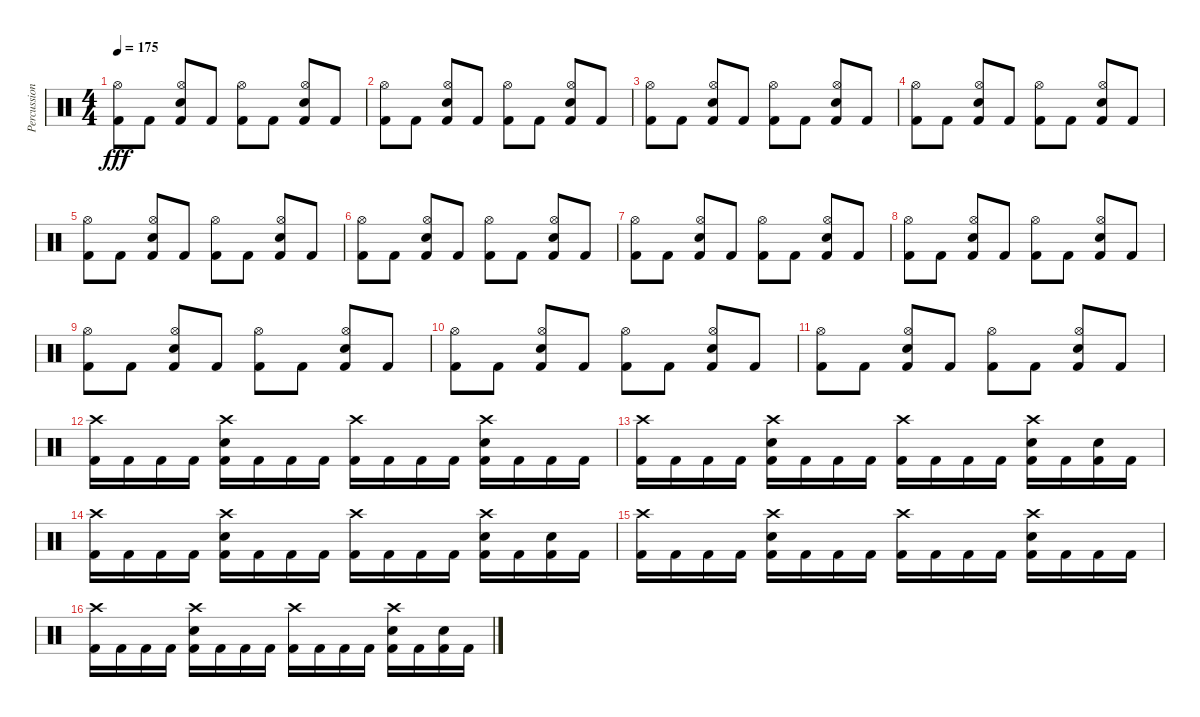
\track ("Percussion" "Percussion") {instrument percussion}
\staff {score}
\articulation defaults
\ts (4 4)
\tempo 175
\clef neutral
\ks c
("Kick (hit) 2" "Hi-Hat (open)").8{dy fff} "Kick (hit) 2".8 ("Kick (hit) 2" "Electric Snare (hit)" "Hi-Hat (open)").8 "Kick (hit) 2".8 ("Kick (hit) 2" "Hi-Hat (open)").8 "Kick (hit) 2".8 ("Kick (hit) 2" "Electric Snare (hit)" "Hi-Hat (open)").8 "Kick (hit) 2".8 |
("Kick (hit) 2" "Hi-Hat (open)").8 "Kick (hit) 2".8 ("Kick (hit) 2" "Electric Snare (hit)" "Hi-Hat (open)").8 "Kick (hit) 2".8 ("Kick (hit) 2" "Hi-Hat (open)").8 "Kick (hit) 2".8 ("Kick (hit) 2" "Electric Snare (hit)" "Hi-Hat (open)").8 "Kick (hit) 2".8 |
("Kick (hit) 2" "Hi-Hat (open)").8 "Kick (hit) 2".8 ("Kick (hit) 2" "Electric Snare (hit)" "Hi-Hat (open)").8 "Kick (hit) 2".8 ("Kick (hit) 2" "Hi-Hat (open)").8 "Kick (hit) 2".8 ("Kick (hit) 2" "Electric Snare (hit)" "Hi-Hat (open)").8 "Kick (hit) 2".8 |
("Kick (hit) 2" "Hi-Hat (open)").8 "Kick (hit) 2".8 ("Kick (hit) 2" "Electric Snare (hit)" "Hi-Hat (open)").8 "Kick (hit) 2".8 ("Kick (hit) 2" "Hi-Hat (open)").8 "Kick (hit) 2".8 ("Kick (hit) 2" "Electric Snare (hit)" "Hi-Hat (open)").8 "Kick (hit) 2".8 |
("Kick (hit) 2" "Hi-Hat (open)").8 "Kick (hit) 2".8 ("Kick (hit) 2" "Electric Snare (hit)" "Hi-Hat (open)").8 "Kick (hit) 2".8 ("Kick (hit) 2" "Hi-Hat (open)").8 "Kick (hit) 2".8 ("Kick (hit) 2" "Electric Snare (hit)" "Hi-Hat (open)").8 "Kick (hit) 2".8 |
("Kick (hit) 2" "Hi-Hat (open)").8 "Kick (hit) 2".8 ("Kick (hit) 2" "Electric Snare (hit)" "Hi-Hat (open)").8 "Kick (hit) 2".8 ("Kick (hit) 2" "Hi-Hat (open)").8 "Kick (hit) 2".8 ("Kick (hit) 2" "Electric Snare (hit)" "Hi-Hat (open)").8 "Kick (hit) 2".8 |
("Kick (hit) 2" "Hi-Hat (open)").8 "Kick (hit) 2".8 ("Kick (hit) 2" "Electric Snare (hit)" "Hi-Hat (open)").8 "Kick (hit) 2".8 ("Kick (hit) 2" "Hi-Hat (open)").8 "Kick (hit) 2".8 ("Kick (hit) 2" "Electric Snare (hit)" "Hi-Hat (open)").8 "Kick (hit) 2".8 |
("Kick (hit) 2" "Hi-Hat (open)").8 "Kick (hit) 2".8 ("Kick (hit) 2" "Electric Snare (hit)" "Hi-Hat (open)").8 "Kick (hit) 2".8 ("Kick (hit) 2" "Hi-Hat (open)").8 "Kick (hit) 2".8 ("Kick (hit) 2" "Electric Snare (hit)" "Hi-Hat (open)").8 "Kick (hit) 2".8 |
("Kick (hit) 2" "Hi-Hat (open)").8 "Kick (hit) 2".8 ("Kick (hit) 2" "Electric Snare (hit)" "Hi-Hat (open)").8 "Kick (hit) 2".8 ("Kick (hit) 2" "Hi-Hat (open)").8 "Kick (hit) 2".8 ("Kick (hit) 2" "Electric Snare (hit)" "Hi-Hat (open)").8 "Kick (hit) 2".8 |
("Kick (hit) 2" "Hi-Hat (open)").8 "Kick (hit) 2".8 ("Kick (hit) 2" "Electric Snare (hit)" "Hi-Hat (open)").8 "Kick (hit) 2".8 ("Kick (hit) 2" "Hi-Hat (open)").8 "Kick (hit) 2".8 ("Kick (hit) 2" "Electric Snare (hit)" "Hi-Hat (open)").8 "Kick (hit) 2".8 |
("Kick (hit) 2" "Hi-Hat (open)").8 "Kick (hit) 2".8 ("Kick (hit) 2" "Electric Snare (hit)" "Hi-Hat (open)").8 "Kick (hit) 2".8 ("Kick (hit) 2" "Hi-Hat (open)").8 "Kick (hit) 2".8 ("Kick (hit) 2" "Electric Snare (hit)" "Hi-Hat (open)").8 "Kick (hit) 2".8 |
("Kick (hit) 2" "Crash high (hit)").16 "Kick (hit) 2".16 "Kick (hit) 2".16 "Kick (hit) 2".16 ("Kick (hit) 2" "Electric Snare (hit)" "Crash high (hit)").16 "Kick (hit) 2".16 "Kick (hit) 2".16 "Kick (hit) 2".16 ("Kick (hit) 2" "Crash high (hit)").16 "Kick (hit) 2".16 "Kick (hit) 2".16 "Kick (hit) 2".16 ("Kick (hit) 2" "Electric Snare (hit)" "Crash high (hit)").16 "Kick (hit) 2".16 "Kick (hit) 2".16 "Kick (hit) 2".16 |
("Kick (hit) 2" "Crash high (hit)").16 "Kick (hit) 2".16 "Kick (hit) 2".16 "Kick (hit) 2".16 ("Kick (hit) 2" "Electric Snare (hit)" "Crash high (hit)").16 "Kick (hit) 2".16 "Kick (hit) 2".16 "Kick (hit) 2".16 ("Kick (hit) 2" "Crash high (hit)").16 "Kick (hit) 2".16 "Kick (hit) 2".16 "Kick (hit) 2".16 ("Kick (hit) 2" "Electric Snare (hit)" "Crash high (hit)").16 "Kick (hit) 2".16 ("Kick (hit) 2" "Electric Snare (hit)").16 "Kick (hit) 2".16 |
("Kick (hit) 2" "Crash high (hit)").16 "Kick (hit) 2".16 "Kick (hit) 2".16 "Kick (hit) 2".16 ("Kick (hit) 2" "Electric Snare (hit)" "Crash high (hit)").16 "Kick (hit) 2".16 "Kick (hit) 2".16 "Kick (hit) 2".16 ("Kick (hit) 2" "Crash high (hit)").16 "Kick (hit) 2".16 "Kick (hit) 2".16 "Kick (hit) 2".16 ("Kick (hit) 2" "Electric Snare (hit)" "Crash high (hit)").16 "Kick (hit) 2".16 ("Kick (hit) 2" "Electric Snare (hit)").16 "Kick (hit) 2".16 |
("Kick (hit) 2" "Crash high (hit)").16 "Kick (hit) 2".16 "Kick (hit) 2".16 "Kick (hit) 2".16 ("Kick (hit) 2" "Electric Snare (hit)" "Crash high (hit)").16 "Kick (hit) 2".16 "Kick (hit) 2".16 "Kick (hit) 2".16 ("Kick (hit) 2" "Crash high (hit)").16 "Kick (hit) 2".16 "Kick (hit) 2".16 "Kick (hit) 2".16 ("Kick (hit) 2" "Electric Snare (hit)" "Crash high (hit)").16 "Kick (hit) 2".16 "Kick (hit) 2".16 "Kick (hit) 2".16 |
("Kick (hit) 2" "Crash high (hit)").16 "Kick (hit) 2".16 "Kick (hit) 2".16 "Kick (hit) 2".16 ("Kick (hit) 2" "Electric Snare (hit)" "Crash high (hit)").16 "Kick (hit) 2".16 "Kick (hit) 2".16 "Kick (hit) 2".16 ("Kick (hit) 2" "Crash high (hit)").16 "Kick (hit) 2".16 "Kick (hit) 2".16 "Kick (hit) 2".16 ("Kick (hit) 2" "Electric Snare (hit)" "Crash high (hit)").16 "Kick (hit) 2".16 ("Kick (hit) 2" "Electric Snare (hit)").16 "Kick (hit) 2".16
